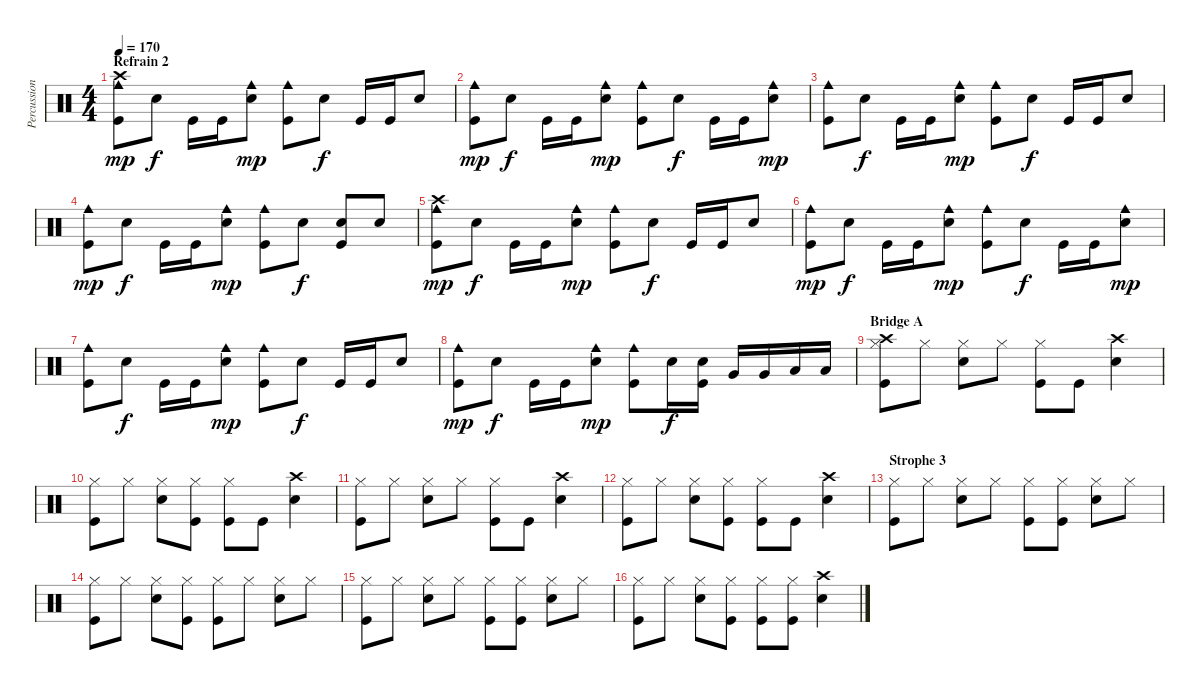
\track ("Percussion" "Percussion") {instrument percussion}
\staff {score}
\articulation defaults
\ts (4 4)
\section ("" "Refrain 2")
\tempo 170
\clef neutral
\ks c
("Cowbell medium (hit)" "Crash high (hit)" "Kick (hit)").8{dy mp} "Electric Snare (hit)".8{dy f} "Kick (hit)".16 "Kick (hit)".16 ("Cowbell medium (hit)" "Electric Snare (hit)").8{dy mp} ("Cowbell medium (hit)" "Kick (hit)").8 "Electric Snare (hit)".8{dy f} "Kick (hit)".16 "Kick (hit)".16 "Electric Snare (hit)".8 |
("Cowbell medium (hit)" "Kick (hit)").8{dy mp} "Electric Snare (hit)".8{dy f} "Kick (hit)".16 "Kick (hit)".16 ("Cowbell medium (hit)" "Electric Snare (hit)").8{dy mp} ("Cowbell medium (hit)" "Kick (hit)").8 "Electric Snare (hit)".8{dy f} "Kick (hit)".16 "Kick (hit)".16 ("Cowbell medium (hit)" "Electric Snare (hit)").8{dy mp} |
("Cowbell medium (hit)" "Kick (hit)").8 "Electric Snare (hit)".8{dy f} "Kick (hit)".16 "Kick (hit)".16 ("Cowbell medium (hit)" "Electric Snare (hit)").8{dy mp} ("Cowbell medium (hit)" "Kick (hit)").8 "Electric Snare (hit)".8{dy f} "Kick (hit)".16 "Kick (hit)".16 "Electric Snare (hit)".8 |
("Cowbell medium (hit)" "Kick (hit)").8{dy mp} "Electric Snare (hit)".8{dy f} "Kick (hit)".16 "Kick (hit)".16 ("Cowbell medium (hit)" "Electric Snare (hit)").8{dy mp} ("Cowbell medium (hit)" "Kick (hit)").8 "Electric Snare (hit)".8{dy f} ("Electric Snare (hit)" "Kick (hit)").8 "Electric Snare (hit)".8 |
("Cowbell medium (hit)" "Crash high (hit)" "Kick (hit)").8{dy mp} "Electric Snare (hit)".8{dy f} "Kick (hit)".16 "Kick (hit)".16 ("Cowbell medium (hit)" "Electric Snare (hit)").8{dy mp} ("Cowbell medium (hit)" "Kick (hit)").8 "Electric Snare (hit)".8{dy f} "Kick (hit)".16 "Kick (hit)".16 "Electric Snare (hit)".8 |
("Cowbell medium (hit)" "Kick (hit)").8{dy mp} "Electric Snare (hit)".8{dy f} "Kick (hit)".16 "Kick (hit)".16 ("Cowbell medium (hit)" "Electric Snare (hit)").8{dy mp} ("Cowbell medium (hit)" "Kick (hit)").8 "Electric Snare (hit)".8{dy f} "Kick (hit)".16 "Kick (hit)".16 ("Cowbell medium (hit)" "Electric Snare (hit)").8{dy mp} |
("Cowbell medium (hit)" "Kick (hit)").8 "Electric Snare (hit)".8{dy f} "Kick (hit)".16 "Kick (hit)".16 ("Cowbell medium (hit)" "Electric Snare (hit)").8{dy mp} ("Cowbell medium (hit)" "Kick (hit)").8 "Electric Snare (hit)".8{dy f} "Kick (hit)".16 "Kick (hit)".16 "Electric Snare (hit)".8 |
("Cowbell medium (hit)" "Kick (hit)").8{dy mp} "Electric Snare (hit)".8{dy f} "Kick (hit)".16 "Kick (hit)".16 ("Cowbell medium (hit)" "Electric Snare (hit)").8{dy mp} ("Cowbell medium (hit)" "Kick (hit)").8 "Electric Snare (hit)".16{dy f} ("Electric Snare (hit)" "Kick (hit)").16 "Very Low Tom (hit)".16 "Very Low Tom (hit)".16 "Low Floor Tom (hit)".16 "Low Floor Tom (hit)".16 |
\section ("" "Bridge A")
("Hi-Hat (closed)" "Crash high (hit)" "Kick (hit)").8 "Hi-Hat (closed)".8 ("Hi-Hat (closed)" "Electric Snare (hit)").8 "Hi-Hat (closed)".8 ("Hi-Hat (closed)" "Kick (hit)").8 "Kick (hit)".8 ("Crash high (hit)" "Electric Snare (hit)").4 |
("Hi-Hat (closed)" "Kick (hit)").8 "Hi-Hat (closed)".8 ("Hi-Hat (closed)" "Electric Snare (hit)").8 ("Hi-Hat (closed)" "Kick (hit)").8 ("Hi-Hat (closed)" "Kick (hit)").8 "Kick (hit)".8 ("Crash high (hit)" "Electric Snare (hit)").4 |
("Hi-Hat (closed)" "Kick (hit)").8 "Hi-Hat (closed)".8 ("Hi-Hat (closed)" "Electric Snare (hit)").8 "Hi-Hat (closed)".8 ("Hi-Hat (closed)" "Kick (hit)").8 "Kick (hit)".8 ("Crash high (hit)" "Electric Snare (hit)").4 |
("Hi-Hat (closed)" "Kick (hit)").8 "Hi-Hat (closed)".8 ("Hi-Hat (closed)" "Electric Snare (hit)").8 ("Hi-Hat (closed)" "Kick (hit)").8 ("Hi-Hat (closed)" "Kick (hit)").8 "Kick (hit)".8 ("Crash high (hit)" "Electric Snare (hit)").4 |
\section ("" "Strophe 3")
("Hi-Hat (closed)" "Kick (hit)").8 "Hi-Hat (closed)".8 ("Hi-Hat (closed)" "Electric Snare (hit)").8 "Hi-Hat (closed)".8 ("Hi-Hat (closed)" "Kick (hit)").8 ("Hi-Hat (closed)" "Kick (hit)").8 ("Hi-Hat (closed)" "Electric Snare (hit)").8 "Hi-Hat (closed)".8 |
("Hi-Hat (closed)" "Kick (hit)").8 "Hi-Hat (closed)".8 ("Hi-Hat (closed)" "Electric Snare (hit)").8 ("Hi-Hat (closed)" "Kick (hit)").8 ("Hi-Hat (closed)" "Kick (hit)").8 "Hi-Hat (closed)".8 ("Hi-Hat (closed)" "Electric Snare (hit)").8 "Hi-Hat (closed)".8 |
("Hi-Hat (closed)" "Kick (hit)").8 "Hi-Hat (closed)".8 ("Hi-Hat (closed)" "Electric Snare (hit)").8 "Hi-Hat (closed)".8 ("Hi-Hat (closed)" "Kick (hit)").8 ("Hi-Hat (closed)" "Kick (hit)").8 ("Hi-Hat (closed)" "Electric Snare (hit)").8 "Hi-Hat (closed)".8 |
("Hi-Hat (closed)" "Kick (hit)").8 "Hi-Hat (closed)".8 ("Hi-Hat (closed)" "Electric Snare (hit)").8 ("Hi-Hat (closed)" "Kick (hit)").8 ("Hi-Hat (closed)" "Kick (hit)").8 ("Hi-Hat (closed)" "Kick (hit)").8 ("Crash high (hit)" "Electric Snare (hit)").4
